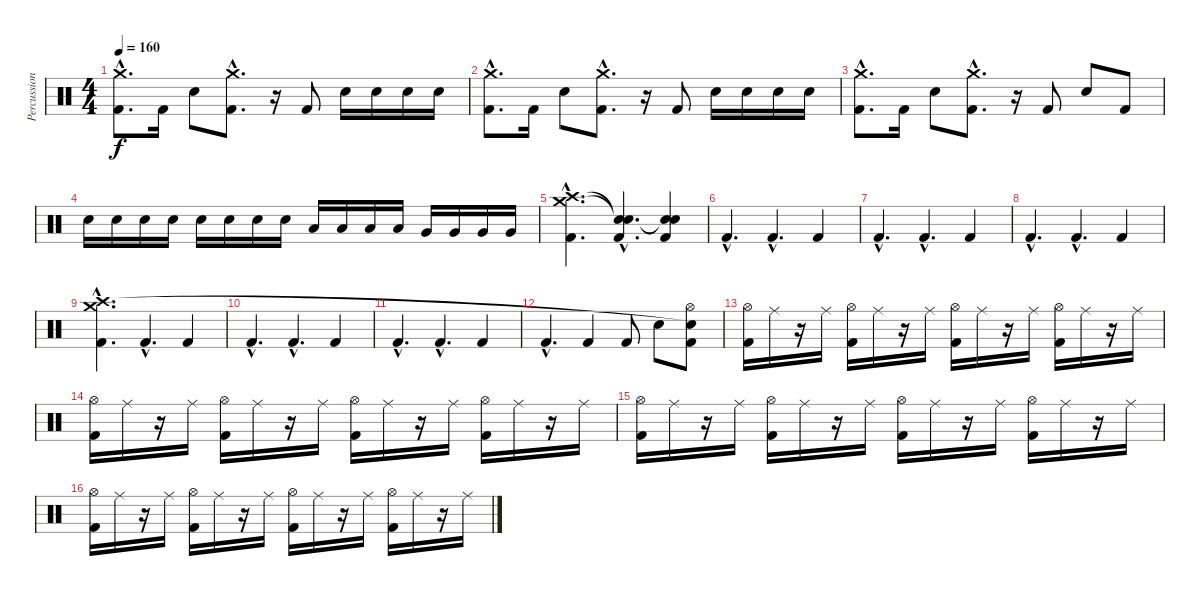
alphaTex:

\track ("Percussion" "Percussion") {instrument percussion}
\staff {score}
\articulation defaults
\ts (4 4)
\tempo 160
\clef neutral
\ks c
("Kick (hit) 2"{hac} "Crash medium (hit)"{hac}).8{d dy f} "Kick (hit) 2".16 "Electric Snare (hit)".8 ("Kick (hit) 2"{hac} "Crash medium (hit)"{hac}).8{d} r.16 "Kick (hit) 2".8 "Electric Snare (hit)".16 "Electric Snare (hit)".16 "Electric Snare (hit)".16 "Electric Snare (hit)".16 |
("Kick (hit) 2"{hac} "Crash medium (hit)"{hac}).8{d} "Kick (hit) 2".16 "Electric Snare (hit)".8 ("Kick (hit) 2"{hac} "Crash medium (hit)"{hac}).8{d} r.16 "Kick (hit) 2".8 "Electric Snare (hit)".16 "Electric Snare (hit)".16 "Electric Snare (hit)".16 "Electric Snare (hit)".16 |
("Kick (hit) 2"{hac} "Crash medium (hit)"{hac}).8{d} "Kick (hit) 2".16 "Electric Snare (hit)".8 ("Kick (hit) 2"{hac} "Crash medium (hit)"{hac}).8{d} r.16 "Kick (hit) 2".8 "Electric Snare (hit)".8 "Kick (hit) 2".8 |
"Electric Snare (hit)".16 "Electric Snare (hit)".16 "Electric Snare (hit)".16 "Electric Snare (hit)".16 "Electric Snare (hit)".16 "Electric Snare (hit)".16 "Electric Snare (hit)".16 "Electric Snare (hit)".16 "Low Tom (hit)".16 "Low Tom (hit)".16 "Low Tom (hit)".16 "Low Tom (hit)".16 "Very Low Tom (hit)".16 "Very Low Tom (hit)".16 "Very Low Tom (hit)".16 "Very Low Tom (hit)".16 |
("Kick (hit) 2"{hac} "Crash high (hit)"{hac} "Crash medium (hit)"{hac}).4{d} ("Kick (hit) 2"{hac} "Snare (hit)"{hac t} "Snare (hit)"{hac t}).4{d} ("Kick (hit) 2" "Snare (hit)"{t} "Snare (hit)"{t}).4 |
"Kick (hit) 2"{hac}.4{d} "Kick (hit) 2"{hac}.4{d} "Kick (hit) 2".4 |
"Kick (hit) 2"{hac}.4{d} "Kick (hit) 2"{hac}.4{d} "Kick (hit) 2".4 |
"Kick (hit) 2"{hac}.4{d} "Kick (hit) 2"{hac}.4{d} "Kick (hit) 2".4 |
("Kick (hit) 2"{hac} "Crash high (hit)"{hac} "Crash medium (hit)"{hac}).4{d} "Kick (hit) 2"{hac}.4{d} "Kick (hit) 2".4 |
"Kick (hit) 2"{hac}.4{d} "Kick (hit) 2"{hac}.4{d} "Kick (hit) 2".4 |
"Kick (hit) 2"{hac}.4{d} "Kick (hit) 2"{hac}.4{d} "Kick (hit) 2".4 |
"Kick (hit) 2"{hac}.4{d} "Kick (hit) 2".4 "Kick (hit) 2".8 "Electric Snare (hit)".8 ("Kick (hit) 2" "Snare (hit)"{t} "Hi-Hat (open)").8 |
("Kick (hit) 2" "Hi-Hat (open)").16 "Ride (middle)".16 r.16 "Ride (middle)".16 ("Kick (hit) 2" "Hi-Hat (open)").16 "Ride (middle)".16 r.16 "Ride (middle)".16 ("Kick (hit) 2" "Hi-Hat (open)").16 "Ride (middle)".16 r.16 "Ride (middle)".16 ("Kick (hit) 2" "Hi-Hat (open)").16 "Ride (middle)".16 r.16 "Ride (middle)".16 |
("Kick (hit) 2" "Hi-Hat (open)").16 "Ride (middle)".16 r.16 "Ride (middle)".16 ("Kick (hit) 2" "Hi-Hat (open)").16 "Ride (middle)".16 r.16 "Ride (middle)".16 ("Kick (hit) 2" "Hi-Hat (open)").16 "Ride (middle)".16 r.16 "Ride (middle)".16 ("Kick (hit) 2" "Hi-Hat (open)").16 "Ride (middle)".16 r.16 "Ride (middle)".16 |
("Kick (hit) 2" "Hi-Hat (open)").16 "Ride (middle)".16 r.16 "Ride (middle)".16 ("Kick (hit) 2" "Hi-Hat (open)").16 "Ride (middle)".16 r.16 "Ride (middle)".16 ("Kick (hit) 2" "Hi-Hat (open)").16 "Ride (middle)".16 r.16 "Ride (middle)".16 ("Kick (hit) 2" "Hi-Hat (open)").16 "Ride (middle)".16 r.16 "Ride (middle)".16 |
("Kick (hit) 2" "Hi-Hat (open)").16 "Ride (middle)".16 r.16 "Ride (middle)".16 ("Kick (hit) 2" "Hi-Hat (open)").16 "Ride (middle)".16 r.16 "Ride (middle)".16 ("Kick (hit) 2" "Hi-Hat (open)").16 "Ride (middle)".16 r.16 "Ride (middle)".16 ("Kick (hit) 2" "Hi-Hat (open)").16 "Ride (middle)".16 r.16 "Ride (middle)".16
